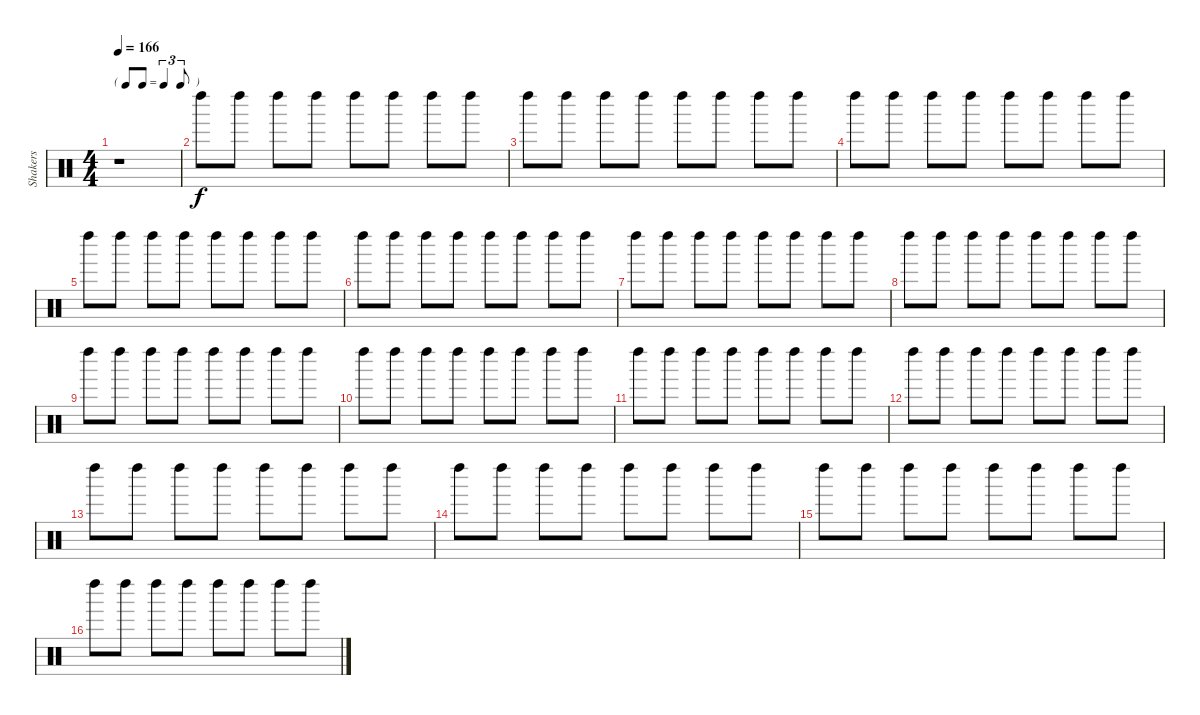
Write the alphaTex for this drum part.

\track ("Shakers" "Shakers") {instrument percussion}
\staff {score}
\articulation defaults
\ts (4 4)
\tf triplet8th
\tempo 166
\clef neutral
\ks c
r.1{dy f} |
"Left Maraca (hit)".8 "Left Maraca (hit)".8 "Left Maraca (hit)".8 "Left Maraca (hit)".8 "Left Maraca (hit)".8 "Left Maraca (hit)".8 "Left Maraca (hit)".8 "Left Maraca (hit)".8 |
"Left Maraca (hit)".8 "Left Maraca (hit)".8 "Left Maraca (hit)".8 "Left Maraca (hit)".8 "Left Maraca (hit)".8 "Left Maraca (hit)".8 "Left Maraca (hit)".8 "Left Maraca (hit)".8 |
"Left Maraca (hit)".8 "Left Maraca (hit)".8 "Left Maraca (hit)".8 "Left Maraca (hit)".8 "Left Maraca (hit)".8 "Left Maraca (hit)".8 "Left Maraca (hit)".8 "Left Maraca (hit)".8 |
"Left Maraca (hit)".8 "Left Maraca (hit)".8 "Left Maraca (hit)".8 "Left Maraca (hit)".8 "Left Maraca (hit)".8 "Left Maraca (hit)".8 "Left Maraca (hit)".8 "Left Maraca (hit)".8 |
"Left Maraca (hit)".8 "Left Maraca (hit)".8 "Left Maraca (hit)".8 "Left Maraca (hit)".8 "Left Maraca (hit)".8 "Left Maraca (hit)".8 "Left Maraca (hit)".8 "Left Maraca (hit)".8 |
"Left Maraca (hit)".8 "Left Maraca (hit)".8 "Left Maraca (hit)".8 "Left Maraca (hit)".8 "Left Maraca (hit)".8 "Left Maraca (hit)".8 "Left Maraca (hit)".8 "Left Maraca (hit)".8 |
"Left Maraca (hit)".8 "Left Maraca (hit)".8 "Left Maraca (hit)".8 "Left Maraca (hit)".8 "Left Maraca (hit)".8 "Left Maraca (hit)".8 "Left Maraca (hit)".8 "Left Maraca (hit)".8 |
"Left Maraca (hit)".8 "Left Maraca (hit)".8 "Left Maraca (hit)".8 "Left Maraca (hit)".8 "Left Maraca (hit)".8 "Left Maraca (hit)".8 "Left Maraca (hit)".8 "Left Maraca (hit)".8 |
"Left Maraca (hit)".8 "Left Maraca (hit)".8 "Left Maraca (hit)".8 "Left Maraca (hit)".8 "Left Maraca (hit)".8 "Left Maraca (hit)".8 "Left Maraca (hit)".8 "Left Maraca (hit)".8 |
"Left Maraca (hit)".8 "Left Maraca (hit)".8 "Left Maraca (hit)".8 "Left Maraca (hit)".8 "Left Maraca (hit)".8 "Left Maraca (hit)".8 "Left Maraca (hit)".8 "Left Maraca (hit)".8 |
"Left Maraca (hit)".8 "Left Maraca (hit)".8 "Left Maraca (hit)".8 "Left Maraca (hit)".8 "Left Maraca (hit)".8 "Left Maraca (hit)".8 "Left Maraca (hit)".8 "Left Maraca (hit)".8 |
"Left Maraca (hit)".8 "Left Maraca (hit)".8 "Left Maraca (hit)".8 "Left Maraca (hit)".8 "Left Maraca (hit)".8 "Left Maraca (hit)".8 "Left Maraca (hit)".8 "Left Maraca (hit)".8 |
"Left Maraca (hit)".8 "Left Maraca (hit)".8 "Left Maraca (hit)".8 "Left Maraca (hit)".8 "Left Maraca (hit)".8 "Left Maraca (hit)".8 "Left Maraca (hit)".8 "Left Maraca (hit)".8 |
"Left Maraca (hit)".8 "Left Maraca (hit)".8 "Left Maraca (hit)".8 "Left Maraca (hit)".8 "Left Maraca (hit)".8 "Left Maraca (hit)".8 "Left Maraca (hit)".8 "Left Maraca (hit)".8 |
"Left Maraca (hit)".8 "Left Maraca (hit)".8 "Left Maraca (hit)".8 "Left Maraca (hit)".8 "Left Maraca (hit)".8 "Left Maraca (hit)".8 "Left Maraca (hit)".8 "Left Maraca (hit)".8
